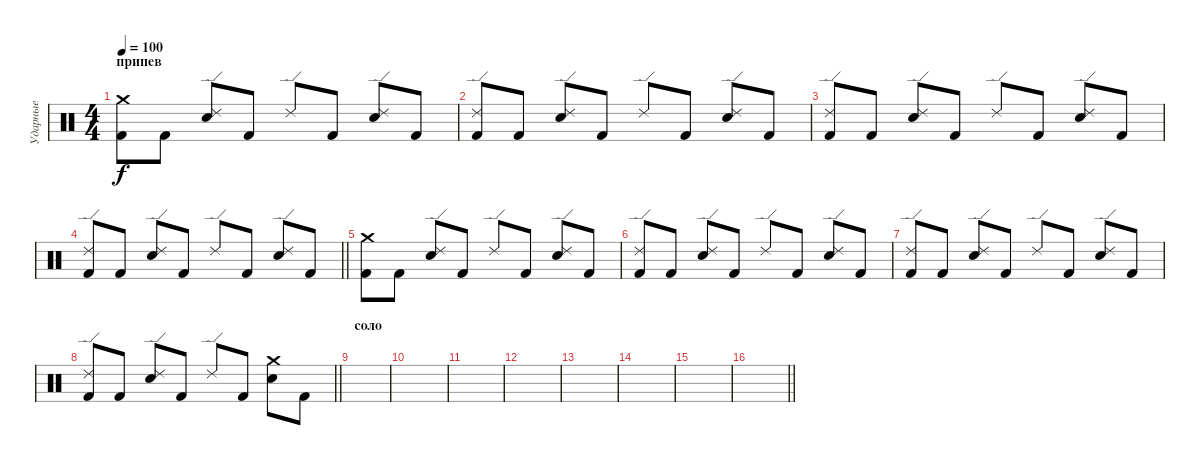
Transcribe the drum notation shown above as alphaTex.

\track ("Ударные" "Ударные") {instrument percussion}
\staff {score}
\articulation defaults
\ts (4 4)
\section ("" "припев")
\tempo 100
\clef neutral
\ks c
("Kick (hit) 2" "Crash medium (hit)").8{dy f} "Kick (hit) 2".8 ("Electric Snare (hit)" "Ride (edge) 2").8 "Kick (hit) 2".8 "Ride (edge) 2".8 "Kick (hit) 2".8 ("Electric Snare (hit)" "Ride (edge) 2").8 "Kick (hit) 2".8 |
("Kick (hit) 2" "Ride (edge) 2").8 "Kick (hit) 2".8 ("Electric Snare (hit)" "Ride (edge) 2").8 "Kick (hit) 2".8 "Ride (edge) 2".8 "Kick (hit) 2".8 ("Electric Snare (hit)" "Ride (edge) 2").8 "Kick (hit) 2".8 |
("Kick (hit) 2" "Ride (edge) 2").8 "Kick (hit) 2".8 ("Electric Snare (hit)" "Ride (edge) 2").8 "Kick (hit) 2".8 "Ride (edge) 2".8 "Kick (hit) 2".8 ("Electric Snare (hit)" "Ride (edge) 2").8 "Kick (hit) 2".8 |
\barLineRight lightlight
("Kick (hit) 2" "Ride (edge) 2").8 "Kick (hit) 2".8 ("Electric Snare (hit)" "Ride (edge) 2").8 "Kick (hit) 2".8 "Ride (edge) 2".8 "Kick (hit) 2".8 ("Electric Snare (hit)" "Ride (edge) 2").8 "Kick (hit) 2".8 |
("Kick (hit) 2" "Crash medium (hit)").8 "Kick (hit) 2".8 ("Electric Snare (hit)" "Ride (edge) 2").8 "Kick (hit) 2".8 "Ride (edge) 2".8 "Kick (hit) 2".8 ("Electric Snare (hit)" "Ride (edge) 2").8 "Kick (hit) 2".8 |
("Kick (hit) 2" "Ride (edge) 2").8 "Kick (hit) 2".8 ("Electric Snare (hit)" "Ride (edge) 2").8 "Kick (hit) 2".8 "Ride (edge) 2".8 "Kick (hit) 2".8 ("Electric Snare (hit)" "Ride (edge) 2").8 "Kick (hit) 2".8 |
("Kick (hit) 2" "Ride (edge) 2").8 "Kick (hit) 2".8 ("Electric Snare (hit)" "Ride (edge) 2").8 "Kick (hit) 2".8 "Ride (edge) 2".8 "Kick (hit) 2".8 ("Electric Snare (hit)" "Ride (edge) 2").8 "Kick (hit) 2".8 |
\barLineRight lightlight
("Kick (hit) 2" "Ride (edge) 2").8 "Kick (hit) 2".8 ("Electric Snare (hit)" "Ride (edge) 2").8 "Kick (hit) 2".8 "Ride (edge) 2".8 "Kick (hit) 2".8 ("Electric Snare (hit)" "Crash medium (hit)").8 "Kick (hit) 2".8 |
\section ("" "соло")
|
|
|
|
|
|
|
\barLineRight lightlight
